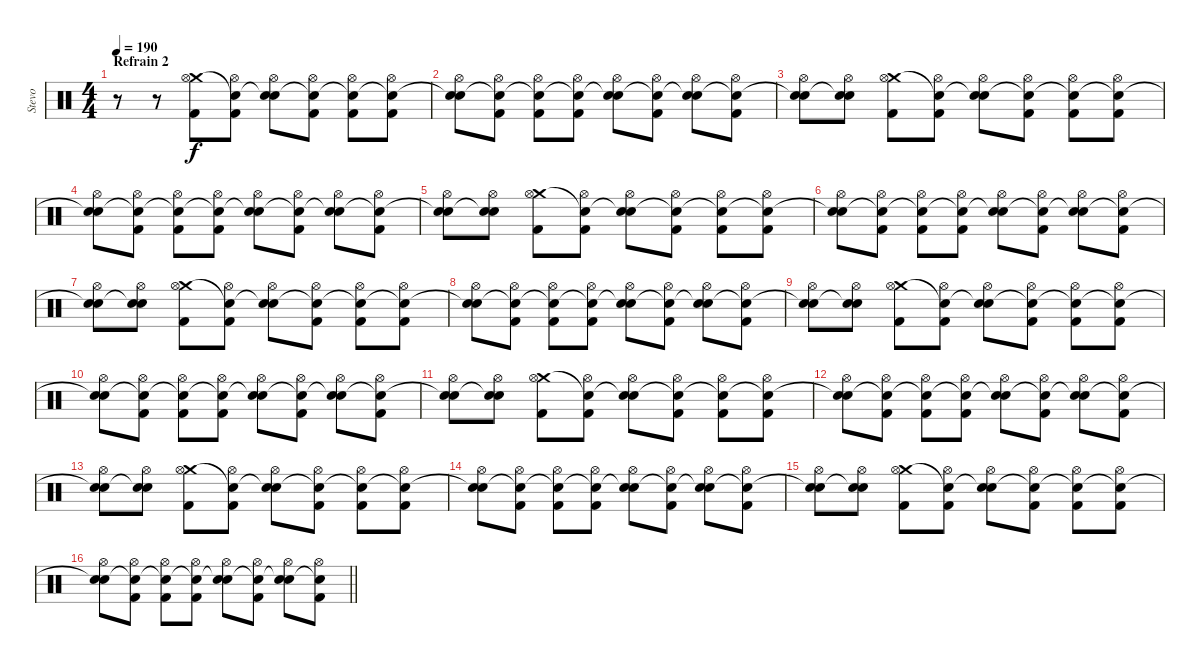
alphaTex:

\track ("Stevo" "Stevo") {instrument percussion}
\staff {score}
\articulation defaults
\ts (4 4)
\section ("" "Refrain 2")
\tempo 190
\clef neutral
\ks c
r.8{dy f} r.8 ("Crash medium (hit)" "Hi-Hat (open)" "Kick (hit) 2").8 ("Snare (hit)"{t} "Hi-Hat (open)" "Kick (hit) 2").8 ("Snare (hit)"{t} "Hi-Hat (open)" "Electric Snare (hit)").8 ("Snare (hit)"{t} "Hi-Hat (open)" "Kick (hit) 2").8 ("Snare (hit)"{t} "Hi-Hat (open)" "Kick (hit) 2").8 ("Snare (hit)"{t} "Hi-Hat (open)" "Kick (hit) 2").8 |
("Snare (hit)"{t} "Hi-Hat (open)" "Electric Snare (hit)").8 ("Snare (hit)"{t} "Hi-Hat (open)" "Kick (hit) 2").8 ("Snare (hit)"{t} "Hi-Hat (open)" "Kick (hit) 2").8 ("Snare (hit)"{t} "Hi-Hat (open)" "Kick (hit) 2").8 ("Snare (hit)"{t} "Hi-Hat (open)" "Electric Snare (hit)").8 ("Snare (hit)"{t} "Hi-Hat (open)" "Kick (hit) 2").8 ("Snare (hit)"{t} "Hi-Hat (open)" "Electric Snare (hit)").8 ("Snare (hit)"{t} "Hi-Hat (open)" "Kick (hit) 2").8 |
("Snare (hit)"{t} "Hi-Hat (open)" "Electric Snare (hit)").8 ("Snare (hit)"{t} "Hi-Hat (open)" "Electric Snare (hit)").8 ("Crash medium (hit)" "Hi-Hat (open)" "Kick (hit) 2").8 ("Snare (hit)"{t} "Hi-Hat (open)" "Kick (hit) 2").8 ("Snare (hit)"{t} "Hi-Hat (open)" "Electric Snare (hit)").8 ("Snare (hit)"{t} "Hi-Hat (open)" "Kick (hit) 2").8 ("Snare (hit)"{t} "Hi-Hat (open)" "Kick (hit) 2").8 ("Snare (hit)"{t} "Hi-Hat (open)" "Kick (hit) 2").8 |
("Snare (hit)"{t} "Hi-Hat (open)" "Electric Snare (hit)").8 ("Snare (hit)"{t} "Hi-Hat (open)" "Kick (hit) 2").8 ("Snare (hit)"{t} "Hi-Hat (open)" "Kick (hit) 2").8 ("Snare (hit)"{t} "Hi-Hat (open)" "Kick (hit) 2").8 ("Snare (hit)"{t} "Hi-Hat (open)" "Electric Snare (hit)").8 ("Snare (hit)"{t} "Hi-Hat (open)" "Kick (hit) 2").8 ("Snare (hit)"{t} "Hi-Hat (open)" "Electric Snare (hit)").8 ("Snare (hit)"{t} "Hi-Hat (open)" "Kick (hit) 2").8 |
("Snare (hit)"{t} "Hi-Hat (open)" "Electric Snare (hit)").8 ("Snare (hit)"{t} "Hi-Hat (open)" "Electric Snare (hit)").8 ("Crash medium (hit)" "Hi-Hat (open)" "Kick (hit) 2").8 ("Snare (hit)"{t} "Hi-Hat (open)" "Kick (hit) 2").8 ("Snare (hit)"{t} "Hi-Hat (open)" "Electric Snare (hit)").8 ("Snare (hit)"{t} "Hi-Hat (open)" "Kick (hit) 2").8 ("Snare (hit)"{t} "Hi-Hat (open)" "Kick (hit) 2").8 ("Snare (hit)"{t} "Hi-Hat (open)" "Kick (hit) 2").8 |
("Snare (hit)"{t} "Hi-Hat (open)" "Electric Snare (hit)").8 ("Snare (hit)"{t} "Hi-Hat (open)" "Kick (hit) 2").8 ("Snare (hit)"{t} "Hi-Hat (open)" "Kick (hit) 2").8 ("Snare (hit)"{t} "Hi-Hat (open)" "Kick (hit) 2").8 ("Snare (hit)"{t} "Hi-Hat (open)" "Electric Snare (hit)").8 ("Snare (hit)"{t} "Hi-Hat (open)" "Kick (hit) 2").8 ("Snare (hit)"{t} "Hi-Hat (open)" "Electric Snare (hit)").8 ("Snare (hit)"{t} "Hi-Hat (open)" "Kick (hit) 2").8 |
("Snare (hit)"{t} "Hi-Hat (open)" "Electric Snare (hit)").8 ("Snare (hit)"{t} "Hi-Hat (open)" "Electric Snare (hit)").8 ("Crash medium (hit)" "Hi-Hat (open)" "Kick (hit) 2").8 ("Snare (hit)"{t} "Hi-Hat (open)" "Kick (hit) 2").8 ("Snare (hit)"{t} "Hi-Hat (open)" "Electric Snare (hit)").8 ("Snare (hit)"{t} "Hi-Hat (open)" "Kick (hit) 2").8 ("Snare (hit)"{t} "Hi-Hat (open)" "Kick (hit) 2").8 ("Snare (hit)"{t} "Hi-Hat (open)" "Kick (hit) 2").8 |
("Snare (hit)"{t} "Hi-Hat (open)" "Electric Snare (hit)").8 ("Snare (hit)"{t} "Hi-Hat (open)" "Kick (hit) 2").8 ("Snare (hit)"{t} "Hi-Hat (open)" "Kick (hit) 2").8 ("Snare (hit)"{t} "Hi-Hat (open)" "Kick (hit) 2").8 ("Snare (hit)"{t} "Hi-Hat (open)" "Electric Snare (hit)").8 ("Snare (hit)"{t} "Hi-Hat (open)" "Kick (hit) 2").8 ("Snare (hit)"{t} "Hi-Hat (open)" "Electric Snare (hit)").8 ("Snare (hit)"{t} "Hi-Hat (open)" "Kick (hit) 2").8 |
("Snare (hit)"{t} "Hi-Hat (open)" "Electric Snare (hit)").8 ("Snare (hit)"{t} "Hi-Hat (open)" "Electric Snare (hit)").8 ("Crash medium (hit)" "Hi-Hat (open)" "Kick (hit) 2").8 ("Snare (hit)"{t} "Hi-Hat (open)" "Kick (hit) 2").8 ("Snare (hit)"{t} "Hi-Hat (open)" "Electric Snare (hit)").8 ("Snare (hit)"{t} "Hi-Hat (open)" "Kick (hit) 2").8 ("Snare (hit)"{t} "Hi-Hat (open)" "Kick (hit) 2").8 ("Snare (hit)"{t} "Hi-Hat (open)" "Kick (hit) 2").8 |
("Snare (hit)"{t} "Hi-Hat (open)" "Electric Snare (hit)").8 ("Snare (hit)"{t} "Hi-Hat (open)" "Kick (hit) 2").8 ("Snare (hit)"{t} "Hi-Hat (open)" "Kick (hit) 2").8 ("Snare (hit)"{t} "Hi-Hat (open)" "Kick (hit) 2").8 ("Snare (hit)"{t} "Hi-Hat (open)" "Electric Snare (hit)").8 ("Snare (hit)"{t} "Hi-Hat (open)" "Kick (hit) 2").8 ("Snare (hit)"{t} "Hi-Hat (open)" "Electric Snare (hit)").8 ("Snare (hit)"{t} "Hi-Hat (open)" "Kick (hit) 2").8 |
("Snare (hit)"{t} "Hi-Hat (open)" "Electric Snare (hit)").8 ("Snare (hit)"{t} "Hi-Hat (open)" "Electric Snare (hit)").8 ("Crash medium (hit)" "Hi-Hat (open)" "Kick (hit) 2").8 ("Snare (hit)"{t} "Hi-Hat (open)" "Kick (hit) 2").8 ("Snare (hit)"{t} "Hi-Hat (open)" "Electric Snare (hit)").8 ("Snare (hit)"{t} "Hi-Hat (open)" "Kick (hit) 2").8 ("Snare (hit)"{t} "Hi-Hat (open)" "Kick (hit) 2").8 ("Snare (hit)"{t} "Hi-Hat (open)" "Kick (hit) 2").8 |
("Snare (hit)"{t} "Hi-Hat (open)" "Electric Snare (hit)").8 ("Snare (hit)"{t} "Hi-Hat (open)" "Kick (hit) 2").8 ("Snare (hit)"{t} "Hi-Hat (open)" "Kick (hit) 2").8 ("Snare (hit)"{t} "Hi-Hat (open)" "Kick (hit) 2").8 ("Snare (hit)"{t} "Hi-Hat (open)" "Electric Snare (hit)").8 ("Snare (hit)"{t} "Hi-Hat (open)" "Kick (hit) 2").8 ("Snare (hit)"{t} "Hi-Hat (open)" "Electric Snare (hit)").8 ("Snare (hit)"{t} "Hi-Hat (open)" "Kick (hit) 2").8 |
("Snare (hit)"{t} "Hi-Hat (open)" "Electric Snare (hit)").8 ("Snare (hit)"{t} "Hi-Hat (open)" "Electric Snare (hit)").8 ("Crash medium (hit)" "Hi-Hat (open)" "Kick (hit) 2").8 ("Snare (hit)"{t} "Hi-Hat (open)" "Kick (hit) 2").8 ("Snare (hit)"{t} "Hi-Hat (open)" "Electric Snare (hit)").8 ("Snare (hit)"{t} "Hi-Hat (open)" "Kick (hit) 2").8 ("Snare (hit)"{t} "Hi-Hat (open)" "Kick (hit) 2").8 ("Snare (hit)"{t} "Hi-Hat (open)" "Kick (hit) 2").8 |
("Snare (hit)"{t} "Hi-Hat (open)" "Electric Snare (hit)").8 ("Snare (hit)"{t} "Hi-Hat (open)" "Kick (hit) 2").8 ("Snare (hit)"{t} "Hi-Hat (open)" "Kick (hit) 2").8 ("Snare (hit)"{t} "Hi-Hat (open)" "Kick (hit) 2").8 ("Snare (hit)"{t} "Hi-Hat (open)" "Electric Snare (hit)").8 ("Snare (hit)"{t} "Hi-Hat (open)" "Kick (hit) 2").8 ("Snare (hit)"{t} "Hi-Hat (open)" "Electric Snare (hit)").8 ("Snare (hit)"{t} "Hi-Hat (open)" "Kick (hit) 2").8 |
("Snare (hit)"{t} "Hi-Hat (open)" "Electric Snare (hit)").8 ("Snare (hit)"{t} "Hi-Hat (open)" "Electric Snare (hit)").8 ("Crash medium (hit)" "Hi-Hat (open)" "Kick (hit) 2").8 ("Snare (hit)"{t} "Hi-Hat (open)" "Kick (hit) 2").8 ("Snare (hit)"{t} "Hi-Hat (open)" "Electric Snare (hit)").8 ("Snare (hit)"{t} "Hi-Hat (open)" "Kick (hit) 2").8 ("Snare (hit)"{t} "Hi-Hat (open)" "Kick (hit) 2").8 ("Snare (hit)"{t} "Hi-Hat (open)" "Kick (hit) 2").8 |
\barLineRight lightlight
("Snare (hit)"{t} "Hi-Hat (open)" "Electric Snare (hit)").8 ("Snare (hit)"{t} "Hi-Hat (open)" "Kick (hit) 2").8 ("Snare (hit)"{t} "Hi-Hat (open)" "Kick (hit) 2").8 ("Snare (hit)"{t} "Hi-Hat (open)" "Kick (hit) 2").8 ("Snare (hit)"{t} "Hi-Hat (open)" "Electric Snare (hit)").8 ("Snare (hit)"{t} "Hi-Hat (open)" "Kick (hit) 2").8 ("Snare (hit)"{t} "Hi-Hat (open)" "Electric Snare (hit)").8 ("Snare (hit)"{t} "Hi-Hat (open)" "Kick (hit) 2").8
